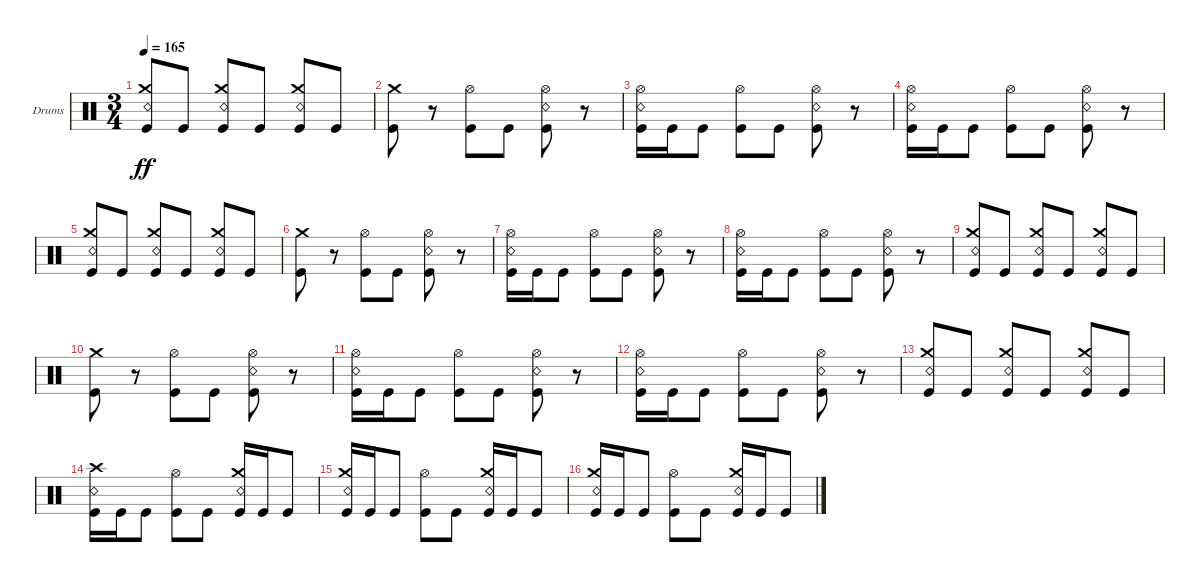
\bracketExtendMode groupsimilarinstruments
\firstSystemTrackNameOrientation horizontal
\otherSystemsTrackNameOrientation horizontal
\track ("Kaleb - Drums" "Drums") {instrument percussion}
\staff {score}
\articulation defaults
\ts (3 4)
\tempo 165
\clef neutral
\ks c
("Kick (hit)" "Crash medium (hit)" "Snare (rim shot)").8{dy ff} "Kick (hit)".8 ("Kick (hit)" "Crash medium (hit)" "Snare (rim shot)").8 "Kick (hit)".8 ("Kick (hit)" "Crash medium (hit)" "Snare (rim shot)").8 "Kick (hit)".8 |
("Kick (hit)" "Crash medium (hit)").8 r.8 ("Kick (hit)" "Hi-Hat (open)").8 "Kick (hit)".8 ("Kick (hit)" "Hi-Hat (open)" "Snare (rim shot)").8 r.8 |
("Kick (hit)" "Hi-Hat (open)" "Snare (rim shot)").16 "Kick (hit)".16 "Kick (hit)".8 ("Kick (hit)" "Hi-Hat (open)").8 "Kick (hit)".8 ("Kick (hit)" "Hi-Hat (open)" "Snare (rim shot)").8 r.8 |
("Kick (hit)" "Hi-Hat (open)" "Snare (rim shot)").16 "Kick (hit)".16 "Kick (hit)".8 ("Kick (hit)" "Hi-Hat (open)").8 "Kick (hit)".8 ("Kick (hit)" "Hi-Hat (open)" "Snare (rim shot)").8 r.8 |
("Kick (hit)" "Crash medium (hit)" "Snare (rim shot)").8 "Kick (hit)".8 ("Kick (hit)" "Crash medium (hit)" "Snare (rim shot)").8 "Kick (hit)".8 ("Kick (hit)" "Crash medium (hit)" "Snare (rim shot)").8 "Kick (hit)".8 |
("Kick (hit)" "Crash medium (hit)").8 r.8 ("Kick (hit)" "Hi-Hat (open)").8 "Kick (hit)".8 ("Kick (hit)" "Hi-Hat (open)" "Snare (rim shot)").8 r.8 |
("Kick (hit)" "Hi-Hat (open)" "Snare (rim shot)").16 "Kick (hit)".16 "Kick (hit)".8 ("Kick (hit)" "Hi-Hat (open)").8 "Kick (hit)".8 ("Kick (hit)" "Hi-Hat (open)" "Snare (rim shot)").8 r.8 |
("Kick (hit)" "Hi-Hat (open)" "Snare (rim shot)").16 "Kick (hit)".16 "Kick (hit)".8 ("Kick (hit)" "Hi-Hat (open)").8 "Kick (hit)".8 ("Kick (hit)" "Hi-Hat (open)" "Snare (rim shot)").8 r.8 |
("Kick (hit)" "Crash medium (hit)" "Snare (rim shot)").8 "Kick (hit)".8 ("Kick (hit)" "Crash medium (hit)" "Snare (rim shot)").8 "Kick (hit)".8 ("Kick (hit)" "Crash medium (hit)" "Snare (rim shot)").8 "Kick (hit)".8 |
("Kick (hit)" "Crash medium (hit)").8 r.8 ("Kick (hit)" "Hi-Hat (open)").8 "Kick (hit)".8 ("Kick (hit)" "Hi-Hat (open)" "Snare (rim shot)").8 r.8 |
("Kick (hit)" "Hi-Hat (open)" "Snare (rim shot)").16 "Kick (hit)".16 "Kick (hit)".8 ("Kick (hit)" "Hi-Hat (open)").8 "Kick (hit)".8 ("Kick (hit)" "Hi-Hat (open)" "Snare (rim shot)").8 r.8 |
("Kick (hit)" "Hi-Hat (open)" "Snare (rim shot)").16 "Kick (hit)".16 "Kick (hit)".8 ("Kick (hit)" "Hi-Hat (open)").8 "Kick (hit)".8 ("Kick (hit)" "Hi-Hat (open)" "Snare (rim shot)").8 r.8 |
("Kick (hit)" "Crash medium (hit)" "Snare (rim shot)").8 "Kick (hit)".8 ("Kick (hit)" "Crash medium (hit)" "Snare (rim shot)").8 "Kick (hit)".8 ("Kick (hit)" "Crash medium (hit)" "Snare (rim shot)").8 "Kick (hit)".8 |
("Kick (hit)" "Snare (rim shot)" "Crash high (hit)").16 "Kick (hit)".16 "Kick (hit)".8 ("Kick (hit)" "Hi-Hat (open)").8 "Kick (hit)".8 ("Kick (hit)" "Snare (rim shot)" "Crash medium (hit)").16 "Kick (hit)".16 "Kick (hit)".8 |
("Kick (hit)" "Snare (rim shot)" "Crash medium (hit)").16 "Kick (hit)".16 "Kick (hit)".8 ("Kick (hit)" "Hi-Hat (open)").8 "Kick (hit)".8 ("Kick (hit)" "Snare (rim shot)" "Crash medium (hit)").16 "Kick (hit)".16 "Kick (hit)".8 |
("Kick (hit)" "Snare (rim shot)" "Crash medium (hit)").16 "Kick (hit)".16 "Kick (hit)".8 ("Kick (hit)" "Hi-Hat (open)").8 "Kick (hit)".8 ("Kick (hit)" "Snare (rim shot)" "Crash medium (hit)").16 "Kick (hit)".16 "Kick (hit)".8
